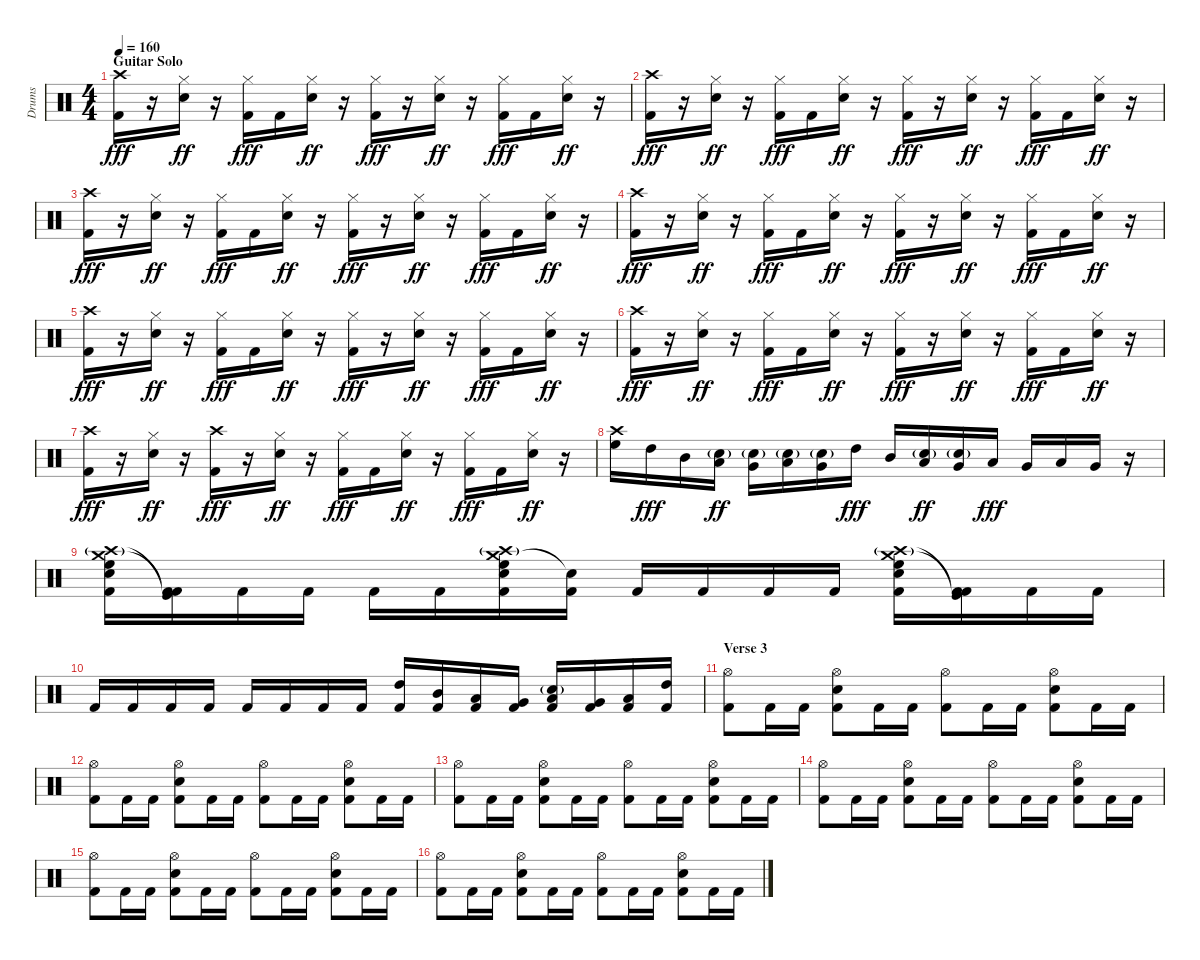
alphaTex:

\track ("Drums" "Drums") {instrument percussion}
\staff {score}
\articulation defaults
\ts (4 4)
\section ("" "Guitar Solo")
\tempo 160
\clef neutral
\ks c
("Crash high (hit)" "Kick (hit) 2").16{dy fff} r.16 ("Hi-Hat (closed)" "Electric Snare (hit)").16{dy ff} r.16 ("Hi-Hat (closed)" "Kick (hit) 2").16{dy fff} "Kick (hit) 2".16 ("Hi-Hat (closed)" "Electric Snare (hit)").16{dy ff} r.16 ("Hi-Hat (closed)" "Kick (hit) 2").16{dy fff} r.16 ("Hi-Hat (closed)" "Electric Snare (hit)").16{dy ff} r.16 ("Hi-Hat (closed)" "Kick (hit) 2").16{dy fff} "Kick (hit) 2".16 ("Hi-Hat (closed)" "Electric Snare (hit)").16{dy ff} r.16 |
("Crash high (hit)" "Kick (hit) 2").16{dy fff} r.16 ("Hi-Hat (closed)" "Electric Snare (hit)").16{dy ff} r.16 ("Hi-Hat (closed)" "Kick (hit) 2").16{dy fff} "Kick (hit) 2".16 ("Hi-Hat (closed)" "Electric Snare (hit)").16{dy ff} r.16 ("Hi-Hat (closed)" "Kick (hit) 2").16{dy fff} r.16 ("Hi-Hat (closed)" "Electric Snare (hit)").16{dy ff} r.16 ("Hi-Hat (closed)" "Kick (hit) 2").16{dy fff} "Kick (hit) 2".16 ("Hi-Hat (closed)" "Electric Snare (hit)").16{dy ff} r.16 |
("Crash high (hit)" "Kick (hit) 2").16{dy fff} r.16 ("Hi-Hat (closed)" "Electric Snare (hit)").16{dy ff} r.16 ("Hi-Hat (closed)" "Kick (hit) 2").16{dy fff} "Kick (hit) 2".16 ("Hi-Hat (closed)" "Electric Snare (hit)").16{dy ff} r.16 ("Hi-Hat (closed)" "Kick (hit) 2").16{dy fff} r.16 ("Hi-Hat (closed)" "Electric Snare (hit)").16{dy ff} r.16 ("Hi-Hat (closed)" "Kick (hit) 2").16{dy fff} "Kick (hit) 2".16 ("Hi-Hat (closed)" "Electric Snare (hit)").16{dy ff} r.16 |
("Crash high (hit)" "Kick (hit) 2").16{dy fff} r.16 ("Hi-Hat (closed)" "Electric Snare (hit)").16{dy ff} r.16 ("Hi-Hat (closed)" "Kick (hit) 2").16{dy fff} "Kick (hit) 2".16 ("Hi-Hat (closed)" "Electric Snare (hit)").16{dy ff} r.16 ("Hi-Hat (closed)" "Kick (hit) 2").16{dy fff} r.16 ("Hi-Hat (closed)" "Electric Snare (hit)").16{dy ff} r.16 ("Hi-Hat (closed)" "Kick (hit) 2").16{dy fff} "Kick (hit) 2".16 ("Hi-Hat (closed)" "Electric Snare (hit)").16{dy ff} r.16 |
("Crash high (hit)" "Kick (hit) 2").16{dy fff} r.16 ("Hi-Hat (closed)" "Electric Snare (hit)").16{dy ff} r.16 ("Hi-Hat (closed)" "Kick (hit) 2").16{dy fff} "Kick (hit) 2".16 ("Hi-Hat (closed)" "Electric Snare (hit)").16{dy ff} r.16 ("Hi-Hat (closed)" "Kick (hit) 2").16{dy fff} r.16 ("Hi-Hat (closed)" "Electric Snare (hit)").16{dy ff} r.16 ("Hi-Hat (closed)" "Kick (hit) 2").16{dy fff} "Kick (hit) 2".16 ("Hi-Hat (closed)" "Electric Snare (hit)").16{dy ff} r.16 |
("Crash high (hit)" "Kick (hit) 2").16{dy fff} r.16 ("Hi-Hat (closed)" "Electric Snare (hit)").16{dy ff} r.16 ("Hi-Hat (closed)" "Kick (hit) 2").16{dy fff} "Kick (hit) 2".16 ("Hi-Hat (closed)" "Electric Snare (hit)").16{dy ff} r.16 ("Hi-Hat (closed)" "Kick (hit) 2").16{dy fff} r.16 ("Hi-Hat (closed)" "Electric Snare (hit)").16{dy ff} r.16 ("Hi-Hat (closed)" "Kick (hit) 2").16{dy fff} "Kick (hit) 2".16 ("Hi-Hat (closed)" "Electric Snare (hit)").16{dy ff} r.16 |
("Crash high (hit)" "Kick (hit) 2").16{dy fff} r.16 ("Hi-Hat (closed)" "Electric Snare (hit)").16{dy ff} r.16 ("Crash high (hit)" "Kick (hit) 2").16{dy fff} r.16 ("Hi-Hat (closed)" "Electric Snare (hit)").16{dy ff} r.16 ("Hi-Hat (closed)" "Kick (hit) 2").16{dy fff} "Kick (hit) 2".16 ("Hi-Hat (closed)" "Electric Snare (hit)").16{dy ff} r.16 ("Hi-Hat (closed)" "Kick (hit) 2").16{dy fff} "Kick (hit) 2".16 ("Hi-Hat (closed)" "Electric Snare (hit)").16{dy ff} r.16 |
("Crash high (hit)" "High Floor Tom (hit)").16 "High Tom (hit)".16{dy fff} "Mid Tom (hit)".16 ("Snare (hit)"{g} "Low Tom (hit)").16{dy ff} ("Snare (hit)"{g} "Very Low Tom (hit)").16 ("Snare (hit)"{g} "Low Tom (hit)").16 ("Snare (hit)"{g} "Very Low Tom (hit)").16 "High Tom (hit)".16{dy fff} "Mid Tom (hit)".16 ("Snare (hit)"{g} "Low Tom (hit)").16{dy ff} ("Snare (hit)"{g} "Very Low Tom (hit)").16 "Low Tom (hit)".16{dy fff} "Very Low Tom (hit)".16 "Low Tom (hit)".16 "Very Low Tom (hit)".16 r.16 |
("Crash medium (hit)" "Crash high (hit)"{g} "High Floor Tom (hit)" "Snare (hit) 2" "Kick (hit) 2").16 ("Kick (hit) 2"{t} "Kick (hit)"{t} "Kick (hit) 2").16 "Kick (hit) 2".16 "Kick (hit) 2".16 "Kick (hit) 2".16 "Kick (hit) 2".16 ("Crash medium (hit)" "Crash high (hit)"{g} "High Floor Tom (hit)" "Snare (hit) 2" "Kick (hit) 2").16 ("Snare (hit)"{t} "Kick (hit) 2").16 "Kick (hit) 2".16 "Kick (hit) 2".16 "Kick (hit) 2".16 "Kick (hit) 2".16 ("Crash medium (hit)" "Crash high (hit)"{g} "High Floor Tom (hit)" "Snare (hit) 2" "Kick (hit) 2").16 ("Kick (hit) 2"{t} "Kick (hit)"{t} "Kick (hit) 2").16 "Kick (hit) 2".16 "Kick (hit) 2".16 |
"Kick (hit) 2".16 "Kick (hit) 2".16 "Kick (hit) 2".16 "Kick (hit) 2".16 "Kick (hit) 2".16 "Kick (hit) 2".16 "Kick (hit) 2".16 "Kick (hit) 2".16 ("High Tom (hit)" "Kick (hit) 2").16 ("Mid Tom (hit)" "Kick (hit) 2").16 ("Low Tom (hit)" "Kick (hit) 2").16 ("Very Low Tom (hit)" "Kick (hit) 2").16 ("Snare (hit)"{g} "Low Tom (hit)" "Kick (hit) 2").16 ("Very Low Tom (hit)" "Kick (hit) 2").16 ("Low Floor Tom (hit)" "Kick (hit) 2").16 ("High Tom (hit)" "Kick (hit) 2").16 |
\section ("" "Verse 3")
("Hi-Hat (open)" "Kick (hit) 2").8 "Kick (hit) 2".16 "Kick (hit) 2".16 ("Hi-Hat (open)" "Snare (hit) 2" "Kick (hit) 2").8 "Kick (hit) 2".16 "Kick (hit) 2".16 ("Hi-Hat (open)" "Kick (hit) 2").8 "Kick (hit) 2".16 "Kick (hit) 2".16 ("Hi-Hat (open)" "Snare (hit) 2" "Kick (hit) 2").8 "Kick (hit) 2".16 "Kick (hit) 2".16 |
("Hi-Hat (open)" "Kick (hit) 2").8 "Kick (hit) 2".16 "Kick (hit) 2".16 ("Hi-Hat (open)" "Snare (hit) 2" "Kick (hit) 2").8 "Kick (hit) 2".16 "Kick (hit) 2".16 ("Hi-Hat (open)" "Kick (hit) 2").8 "Kick (hit) 2".16 "Kick (hit) 2".16 ("Hi-Hat (open)" "Snare (hit) 2" "Kick (hit) 2").8 "Kick (hit) 2".16 "Kick (hit) 2".16 |
("Hi-Hat (open)" "Kick (hit) 2").8 "Kick (hit) 2".16 "Kick (hit) 2".16 ("Hi-Hat (open)" "Snare (hit) 2" "Kick (hit) 2").8 "Kick (hit) 2".16 "Kick (hit) 2".16 ("Hi-Hat (open)" "Kick (hit) 2").8 "Kick (hit) 2".16 "Kick (hit) 2".16 ("Hi-Hat (open)" "Snare (hit) 2" "Kick (hit) 2").8 "Kick (hit) 2".16 "Kick (hit) 2".16 |
("Hi-Hat (open)" "Kick (hit) 2").8 "Kick (hit) 2".16 "Kick (hit) 2".16 ("Hi-Hat (open)" "Snare (hit) 2" "Kick (hit) 2").8 "Kick (hit) 2".16 "Kick (hit) 2".16 ("Hi-Hat (open)" "Kick (hit) 2").8 "Kick (hit) 2".16 "Kick (hit) 2".16 ("Hi-Hat (open)" "Snare (hit) 2" "Kick (hit) 2").8 "Kick (hit) 2".16 "Kick (hit) 2".16 |
("Hi-Hat (open)" "Kick (hit) 2").8 "Kick (hit) 2".16 "Kick (hit) 2".16 ("Hi-Hat (open)" "Snare (hit) 2" "Kick (hit) 2").8 "Kick (hit) 2".16 "Kick (hit) 2".16 ("Hi-Hat (open)" "Kick (hit) 2").8 "Kick (hit) 2".16 "Kick (hit) 2".16 ("Hi-Hat (open)" "Snare (hit) 2" "Kick (hit) 2").8 "Kick (hit) 2".16 "Kick (hit) 2".16 |
("Hi-Hat (open)" "Kick (hit) 2").8 "Kick (hit) 2".16 "Kick (hit) 2".16 ("Hi-Hat (open)" "Snare (hit) 2" "Kick (hit) 2").8 "Kick (hit) 2".16 "Kick (hit) 2".16 ("Hi-Hat (open)" "Kick (hit) 2").8 "Kick (hit) 2".16 "Kick (hit) 2".16 ("Hi-Hat (open)" "Snare (hit) 2" "Kick (hit) 2").8 "Kick (hit) 2".16 "Kick (hit) 2".16
